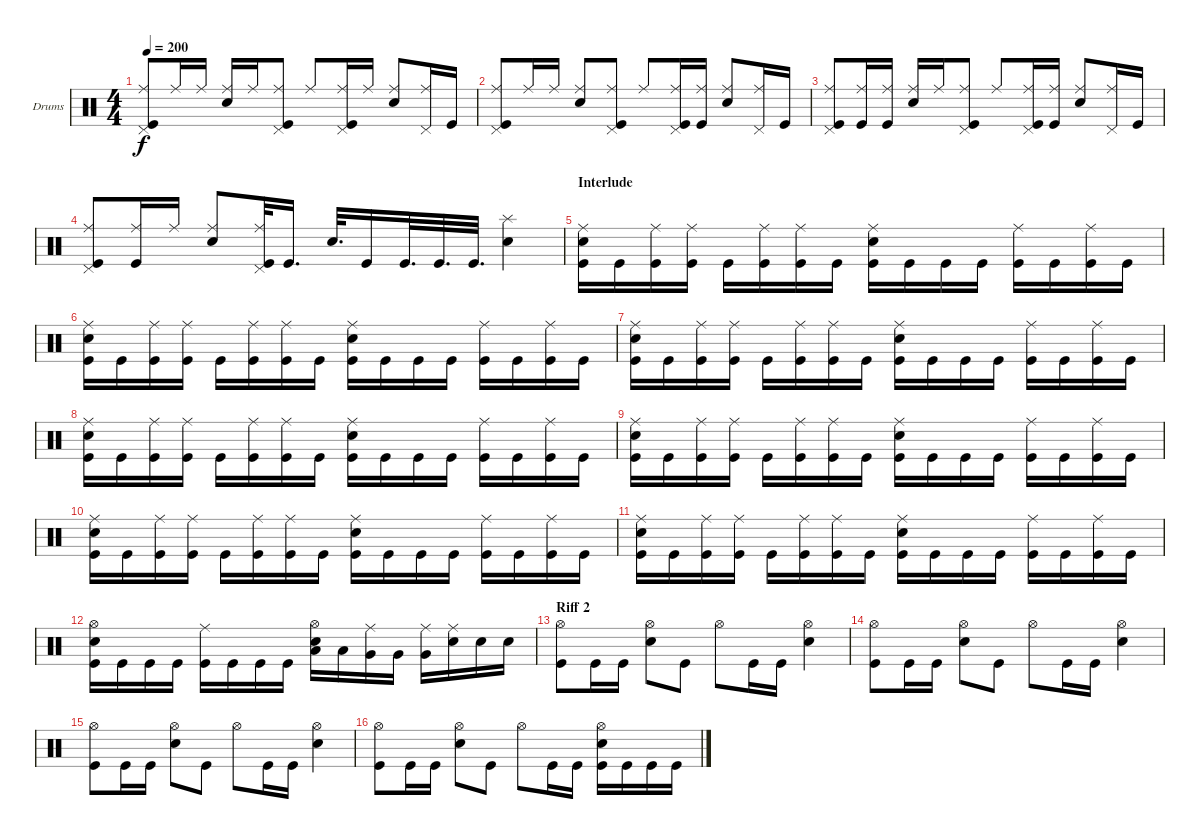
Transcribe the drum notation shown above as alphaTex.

\bracketExtendMode groupsimilarinstruments
\firstSystemTrackNameOrientation horizontal
\otherSystemsTrackNameOrientation horizontal
\track ("Drumkit" "Drums") {multiBarRest instrument percussion}
\staff {score}
\articulation defaults
\ts (4 4)
\tempo 200
\clef neutral
\ks c
("Pedal Hi-Hat (hit)" "Ride (middle)" "Kick (hit)").8{dy f} "Ride (middle)".16 "Ride (middle)".16 ("Ride (middle)" "Snare (hit) 2").16 "Ride (middle)".16 ("Pedal Hi-Hat (hit)" "Ride (middle)" "Kick (hit)").8 "Ride (middle)".8 ("Pedal Hi-Hat (hit)" "Ride (middle)" "Kick (hit)").16 "Ride (middle)".16 ("Ride (middle)" "Snare (hit) 2").8 ("Pedal Hi-Hat (hit)" "Ride (middle)").16 "Kick (hit)".16 |
("Pedal Hi-Hat (hit)" "Ride (middle)" "Kick (hit)").8 "Ride (middle)".16 "Ride (middle)".16 ("Ride (middle)" "Snare (hit) 2").8 ("Pedal Hi-Hat (hit)" "Ride (middle)" "Kick (hit)").8 "Ride (middle)".8 ("Pedal Hi-Hat (hit)" "Ride (middle)" "Kick (hit)").16 ("Ride (middle)" "Kick (hit)").16 ("Ride (middle)" "Snare (hit) 2").8 ("Pedal Hi-Hat (hit)" "Ride (middle)").16 "Kick (hit)".16 |
("Pedal Hi-Hat (hit)" "Ride (middle)" "Kick (hit)").8 ("Ride (middle)" "Kick (hit)").16 ("Ride (middle)" "Kick (hit)").16 ("Ride (middle)" "Snare (hit) 2").16 "Ride (middle)".16 ("Pedal Hi-Hat (hit)" "Ride (middle)" "Kick (hit)").8 "Ride (middle)".8 ("Pedal Hi-Hat (hit)" "Ride (middle)" "Kick (hit)").16 ("Ride (middle)" "Kick (hit)").16 ("Ride (middle)" "Snare (hit) 2").8 ("Pedal Hi-Hat (hit)" "Ride (middle)").16 "Kick (hit)".16 |
("Pedal Hi-Hat (hit)" "Ride (middle)" "Kick (hit)").8 ("Ride (middle)" "Kick (hit)").16 "Ride (middle)".16 ("Ride (middle)" "Snare (hit) 2").8 ("Pedal Hi-Hat (hit)" "Ride (middle)" "Kick (hit)").32 "Kick (hit)".16{d} "Snare (hit) 2".32{d} "Kick (hit)".16 "Kick (hit)".32{d} "Kick (hit)".32{d} "Kick (hit)".32{d} ("Splash (hit)" "Snare (hit) 2").4 |
\section ("" "Interlude")
("Snare (hit) 2" "Ride (middle)" "Kick (hit)").16 "Kick (hit)".16 ("Ride (middle)" "Kick (hit)").16 ("Ride (middle)" "Kick (hit)").16 "Kick (hit)".16 ("Ride (middle)" "Kick (hit)").16 ("Ride (middle)" "Kick (hit)").16 "Kick (hit)".16 ("Snare (hit) 2" "Ride (middle)" "Kick (hit)").16 "Kick (hit)".16 "Kick (hit)".16 "Kick (hit)".16 ("Ride (middle)" "Kick (hit)").16 "Kick (hit)".16 ("Ride (middle)" "Kick (hit)").16 "Kick (hit)".16 |
("Snare (hit) 2" "Ride (middle)" "Kick (hit)").16 "Kick (hit)".16 ("Ride (middle)" "Kick (hit)").16 ("Ride (middle)" "Kick (hit)").16 "Kick (hit)".16 ("Ride (middle)" "Kick (hit)").16 ("Ride (middle)" "Kick (hit)").16 "Kick (hit)".16 ("Snare (hit) 2" "Ride (middle)" "Kick (hit)").16 "Kick (hit)".16 "Kick (hit)".16 "Kick (hit)".16 ("Ride (middle)" "Kick (hit)").16 "Kick (hit)".16 ("Ride (middle)" "Kick (hit)").16 "Kick (hit)".16 |
("Snare (hit) 2" "Ride (middle)" "Kick (hit)").16 "Kick (hit)".16 ("Ride (middle)" "Kick (hit)").16 ("Ride (middle)" "Kick (hit)").16 "Kick (hit)".16 ("Ride (middle)" "Kick (hit)").16 ("Ride (middle)" "Kick (hit)").16 "Kick (hit)".16 ("Snare (hit) 2" "Ride (middle)" "Kick (hit)").16 "Kick (hit)".16 "Kick (hit)".16 "Kick (hit)".16 ("Ride (middle)" "Kick (hit)").16 "Kick (hit)".16 ("Ride (middle)" "Kick (hit)").16 "Kick (hit)".16 |
("Snare (hit) 2" "Ride (middle)" "Kick (hit)").16 "Kick (hit)".16 ("Ride (middle)" "Kick (hit)").16 ("Ride (middle)" "Kick (hit)").16 "Kick (hit)".16 ("Ride (middle)" "Kick (hit)").16 ("Ride (middle)" "Kick (hit)").16 "Kick (hit)".16 ("Snare (hit) 2" "Ride (middle)" "Kick (hit)").16 "Kick (hit)".16 "Kick (hit)".16 "Kick (hit)".16 ("Ride (middle)" "Kick (hit)").16 "Kick (hit)".16 ("Ride (middle)" "Kick (hit)").16 "Kick (hit)".16 |
("Snare (hit) 2" "Ride (middle)" "Kick (hit)").16 "Kick (hit)".16 ("Ride (middle)" "Kick (hit)").16 ("Ride (middle)" "Kick (hit)").16 "Kick (hit)".16 ("Ride (middle)" "Kick (hit)").16 ("Ride (middle)" "Kick (hit)").16 "Kick (hit)".16 ("Snare (hit) 2" "Ride (middle)" "Kick (hit)").16 "Kick (hit)".16 "Kick (hit)".16 "Kick (hit)".16 ("Ride (middle)" "Kick (hit)").16 "Kick (hit)".16 ("Ride (middle)" "Kick (hit)").16 "Kick (hit)".16 |
("Snare (hit) 2" "Ride (middle)" "Kick (hit)").16 "Kick (hit)".16 ("Ride (middle)" "Kick (hit)").16 ("Ride (middle)" "Kick (hit)").16 "Kick (hit)".16 ("Ride (middle)" "Kick (hit)").16 ("Ride (middle)" "Kick (hit)").16 "Kick (hit)".16 ("Snare (hit) 2" "Ride (middle)" "Kick (hit)").16 "Kick (hit)".16 "Kick (hit)".16 "Kick (hit)".16 ("Ride (middle)" "Kick (hit)").16 "Kick (hit)".16 ("Ride (middle)" "Kick (hit)").16 "Kick (hit)".16 |
("Snare (hit) 2" "Ride (middle)" "Kick (hit)").16 "Kick (hit)".16 ("Ride (middle)" "Kick (hit)").16 ("Ride (middle)" "Kick (hit)").16 "Kick (hit)".16 ("Ride (middle)" "Kick (hit)").16 ("Ride (middle)" "Kick (hit)").16 "Kick (hit)".16 ("Snare (hit) 2" "Ride (middle)" "Kick (hit)").16 "Kick (hit)".16 "Kick (hit)".16 "Kick (hit)".16 ("Ride (middle)" "Kick (hit)").16 "Kick (hit)".16 ("Ride (middle)" "Kick (hit)").16 "Kick (hit)".16 |
("Snare (hit) 2" "Hi-Hat (open)" "Kick (hit)").16 "Kick (hit)".16 "Kick (hit)".16 "Kick (hit)".16 ("Ride (middle)" "Kick (hit)").16 "Kick (hit)".16 "Kick (hit)".16 "Kick (hit)".16 ("Snare (hit) 2" "Hi-Hat (open)" "Low Tom (hit)").16 "Low Tom (hit)".16 ("Ride (middle)" "Very Low Tom (hit)").16 "Very Low Tom (hit)".16 ("Ride (middle)" "Very Low Tom (hit)").16 ("Ride (middle)" "Snare (hit) 2").16 "Snare (hit) 2".16 "Snare (hit) 2".16 |
\section ("" "Riff 2")
("Hi-Hat (open)" "Kick (hit)").8 "Kick (hit)".16 "Kick (hit)".16 ("Hi-Hat (open)" "Snare (hit) 2").8 "Kick (hit)".8 "Hi-Hat (open)".8 "Kick (hit)".16 "Kick (hit)".16 ("Hi-Hat (open)" "Snare (hit) 2").4 |
("Hi-Hat (open)" "Kick (hit)").8 "Kick (hit)".16 "Kick (hit)".16 ("Hi-Hat (open)" "Snare (hit) 2").8 "Kick (hit)".8 "Hi-Hat (open)".8 "Kick (hit)".16 "Kick (hit)".16 ("Hi-Hat (open)" "Snare (hit) 2").4 |
("Hi-Hat (open)" "Kick (hit)").8 "Kick (hit)".16 "Kick (hit)".16 ("Hi-Hat (open)" "Snare (hit) 2").8 "Kick (hit)".8 "Hi-Hat (open)".8 "Kick (hit)".16 "Kick (hit)".16 ("Hi-Hat (open)" "Snare (hit) 2").4 |
("Hi-Hat (open)" "Kick (hit)").8 "Kick (hit)".16 "Kick (hit)".16 ("Hi-Hat (open)" "Snare (hit) 2").8 "Kick (hit)".8 "Hi-Hat (open)".8 "Kick (hit)".16 "Kick (hit)".16 ("Hi-Hat (open)" "Snare (hit) 2" "Kick (hit)").16 "Kick (hit)".16 "Kick (hit)".16 "Kick (hit)".16
